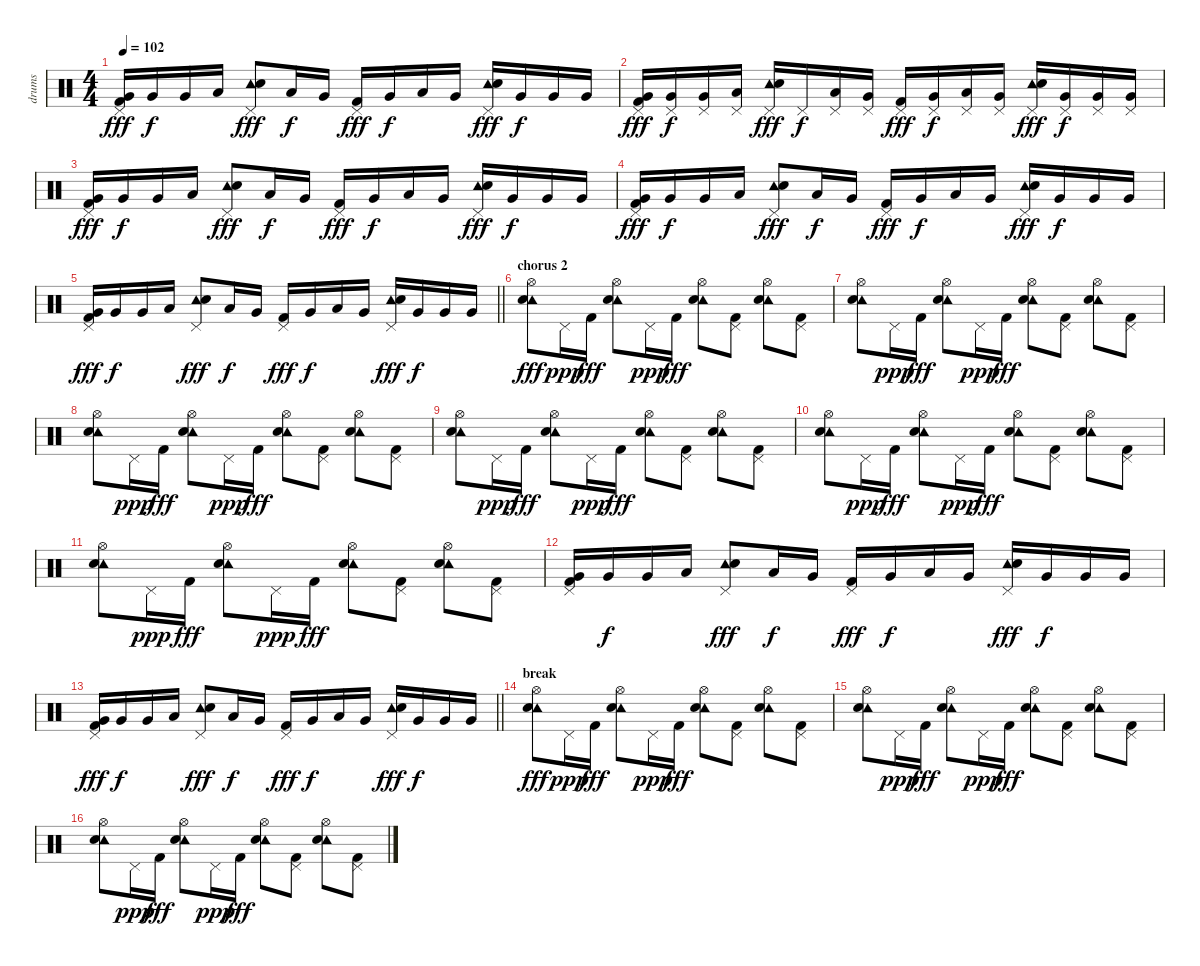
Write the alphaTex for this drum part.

\track ("drums" "drums") {instrument percussion}
\staff {score}
\articulation defaults
\ts (4 4)
\tempo 102
\clef neutral
\ks c
("Pedal Hi-Hat (hit)" "Very Low Tom (hit)" "Kick (hit) 2").16{dy fff} "Very Low Tom (hit)".16{dy f} "Very Low Tom (hit)".16 "Low Tom (hit)".16 ("Tambourine (hit)" "Pedal Hi-Hat (hit)" "Electric Snare (hit)").8{dy fff} "Low Tom (hit)".16{dy f} "Very Low Tom (hit)".16 ("Pedal Hi-Hat (hit)" "Kick (hit) 2").16{dy fff} "Very Low Tom (hit)".16{dy f} "Low Tom (hit)".16 "Very Low Tom (hit)".16 ("Tambourine (hit)" "Pedal Hi-Hat (hit)" "Electric Snare (hit)").16{dy fff} "Very Low Tom (hit)".16{dy f} "Very Low Tom (hit)".16 "Very Low Tom (hit)".16 |
("Pedal Hi-Hat (hit)" "Very Low Tom (hit)" "Kick (hit) 2").16{dy fff} ("Pedal Hi-Hat (hit)" "Very Low Tom (hit)").16{dy f} ("Pedal Hi-Hat (hit)" "Very Low Tom (hit)").16 ("Pedal Hi-Hat (hit)" "Low Tom (hit)").16 ("Tambourine (hit)" "Pedal Hi-Hat (hit)" "Electric Snare (hit)").16{dy fff} "Pedal Hi-Hat (hit)".16{dy f} ("Pedal Hi-Hat (hit)" "Low Tom (hit)").16 ("Pedal Hi-Hat (hit)" "Very Low Tom (hit)").16 ("Pedal Hi-Hat (hit)" "Kick (hit) 2").16{dy fff} ("Pedal Hi-Hat (hit)" "Very Low Tom (hit)").16{dy f} ("Pedal Hi-Hat (hit)" "Low Tom (hit)").16 ("Pedal Hi-Hat (hit)" "Very Low Tom (hit)").16 ("Tambourine (hit)" "Pedal Hi-Hat (hit)" "Electric Snare (hit)").16{dy fff} ("Pedal Hi-Hat (hit)" "Very Low Tom (hit)").16{dy f} ("Pedal Hi-Hat (hit)" "Very Low Tom (hit)").16 ("Pedal Hi-Hat (hit)" "Very Low Tom (hit)").16 |
("Pedal Hi-Hat (hit)" "Very Low Tom (hit)" "Kick (hit) 2").16{dy fff} "Very Low Tom (hit)".16{dy f} "Very Low Tom (hit)".16 "Low Tom (hit)".16 ("Tambourine (hit)" "Pedal Hi-Hat (hit)" "Electric Snare (hit)").8{dy fff} "Low Tom (hit)".16{dy f} "Very Low Tom (hit)".16 ("Pedal Hi-Hat (hit)" "Kick (hit) 2").16{dy fff} "Very Low Tom (hit)".16{dy f} "Low Tom (hit)".16 "Very Low Tom (hit)".16 ("Tambourine (hit)" "Pedal Hi-Hat (hit)" "Electric Snare (hit)").16{dy fff} "Very Low Tom (hit)".16{dy f} "Very Low Tom (hit)".16 "Very Low Tom (hit)".16 |
("Pedal Hi-Hat (hit)" "Very Low Tom (hit)" "Kick (hit) 2").16{dy fff} "Very Low Tom (hit)".16{dy f} "Very Low Tom (hit)".16 "Low Tom (hit)".16 ("Tambourine (hit)" "Pedal Hi-Hat (hit)" "Electric Snare (hit)").8{dy fff} "Low Tom (hit)".16{dy f} "Very Low Tom (hit)".16 ("Pedal Hi-Hat (hit)" "Kick (hit) 2").16{dy fff} "Very Low Tom (hit)".16{dy f} "Low Tom (hit)".16 "Very Low Tom (hit)".16 ("Tambourine (hit)" "Pedal Hi-Hat (hit)" "Electric Snare (hit)").16{dy fff} "Very Low Tom (hit)".16{dy f} "Very Low Tom (hit)".16 "Very Low Tom (hit)".16 |
\barLineRight lightlight
("Pedal Hi-Hat (hit)" "Very Low Tom (hit)" "Kick (hit) 2").16{dy fff} "Very Low Tom (hit)".16{dy f} "Very Low Tom (hit)".16 "Low Tom (hit)".16 ("Tambourine (hit)" "Pedal Hi-Hat (hit)" "Electric Snare (hit)").8{dy fff} "Low Tom (hit)".16{dy f} "Very Low Tom (hit)".16 ("Pedal Hi-Hat (hit)" "Kick (hit) 2").16{dy fff} "Very Low Tom (hit)".16{dy f} "Low Tom (hit)".16 "Very Low Tom (hit)".16 ("Tambourine (hit)" "Pedal Hi-Hat (hit)" "Electric Snare (hit)").16{dy fff} "Very Low Tom (hit)".16{dy f} "Very Low Tom (hit)".16 "Very Low Tom (hit)".16 |
\section ("" "chorus 2")
("Tambourine (hit)" "Hi-Hat (open)" "Electric Snare (hit)").8{dy fff} "Pedal Hi-Hat (hit)".16{dy ppp} "Kick (hit) 2".16{dy fff} ("Tambourine (hit)" "Hi-Hat (open)" "Electric Snare (hit)").8 "Pedal Hi-Hat (hit)".16{dy ppp} "Kick (hit) 2".16{dy fff} ("Tambourine (hit)" "Hi-Hat (open)" "Electric Snare (hit)").8 ("Pedal Hi-Hat (hit)" "Kick (hit) 2").8 ("Tambourine (hit)" "Hi-Hat (open)" "Electric Snare (hit)").8 ("Pedal Hi-Hat (hit)" "Kick (hit) 2").8 |
("Tambourine (hit)" "Hi-Hat (open)" "Electric Snare (hit)").8 "Pedal Hi-Hat (hit)".16{dy ppp} "Kick (hit) 2".16{dy fff} ("Tambourine (hit)" "Hi-Hat (open)" "Electric Snare (hit)").8 "Pedal Hi-Hat (hit)".16{dy ppp} "Kick (hit) 2".16{dy fff} ("Tambourine (hit)" "Hi-Hat (open)" "Electric Snare (hit)").8 ("Pedal Hi-Hat (hit)" "Kick (hit) 2").8 ("Tambourine (hit)" "Hi-Hat (open)" "Electric Snare (hit)").8 ("Pedal Hi-Hat (hit)" "Kick (hit) 2").8 |
("Tambourine (hit)" "Hi-Hat (open)" "Electric Snare (hit)").8 "Pedal Hi-Hat (hit)".16{dy ppp} "Kick (hit) 2".16{dy fff} ("Tambourine (hit)" "Hi-Hat (open)" "Electric Snare (hit)").8 "Pedal Hi-Hat (hit)".16{dy ppp} "Kick (hit) 2".16{dy fff} ("Tambourine (hit)" "Hi-Hat (open)" "Electric Snare (hit)").8 ("Pedal Hi-Hat (hit)" "Kick (hit) 2").8 ("Tambourine (hit)" "Hi-Hat (open)" "Electric Snare (hit)").8 ("Pedal Hi-Hat (hit)" "Kick (hit) 2").8 |
("Tambourine (hit)" "Hi-Hat (open)" "Electric Snare (hit)").8 "Pedal Hi-Hat (hit)".16{dy ppp} "Kick (hit) 2".16{dy fff} ("Tambourine (hit)" "Hi-Hat (open)" "Electric Snare (hit)").8 "Pedal Hi-Hat (hit)".16{dy ppp} "Kick (hit) 2".16{dy fff} ("Tambourine (hit)" "Hi-Hat (open)" "Electric Snare (hit)").8 ("Pedal Hi-Hat (hit)" "Kick (hit) 2").8 ("Tambourine (hit)" "Hi-Hat (open)" "Electric Snare (hit)").8 ("Pedal Hi-Hat (hit)" "Kick (hit) 2").8 |
("Tambourine (hit)" "Hi-Hat (open)" "Electric Snare (hit)").8 "Pedal Hi-Hat (hit)".16{dy ppp} "Kick (hit) 2".16{dy fff} ("Tambourine (hit)" "Hi-Hat (open)" "Electric Snare (hit)").8 "Pedal Hi-Hat (hit)".16{dy ppp} "Kick (hit) 2".16{dy fff} ("Tambourine (hit)" "Hi-Hat (open)" "Electric Snare (hit)").8 ("Pedal Hi-Hat (hit)" "Kick (hit) 2").8 ("Tambourine (hit)" "Hi-Hat (open)" "Electric Snare (hit)").8 ("Pedal Hi-Hat (hit)" "Kick (hit) 2").8 |
("Tambourine (hit)" "Hi-Hat (open)" "Electric Snare (hit)").8 "Pedal Hi-Hat (hit)".16{dy ppp} "Kick (hit) 2".16{dy fff} ("Tambourine (hit)" "Hi-Hat (open)" "Electric Snare (hit)").8 "Pedal Hi-Hat (hit)".16{dy ppp} "Kick (hit) 2".16{dy fff} ("Tambourine (hit)" "Hi-Hat (open)" "Electric Snare (hit)").8 ("Pedal Hi-Hat (hit)" "Kick (hit) 2").8 ("Tambourine (hit)" "Hi-Hat (open)" "Electric Snare (hit)").8 ("Pedal Hi-Hat (hit)" "Kick (hit) 2").8 |
("Pedal Hi-Hat (hit)" "Very Low Tom (hit)" "Kick (hit) 2").16 "Very Low Tom (hit)".16{dy f} "Very Low Tom (hit)".16 "Low Tom (hit)".16 ("Tambourine (hit)" "Pedal Hi-Hat (hit)" "Electric Snare (hit)").8{dy fff} "Low Tom (hit)".16{dy f} "Very Low Tom (hit)".16 ("Pedal Hi-Hat (hit)" "Kick (hit) 2").16{dy fff} "Very Low Tom (hit)".16{dy f} "Low Tom (hit)".16 "Very Low Tom (hit)".16 ("Tambourine (hit)" "Pedal Hi-Hat (hit)" "Electric Snare (hit)").16{dy fff} "Very Low Tom (hit)".16{dy f} "Very Low Tom (hit)".16 "Very Low Tom (hit)".16 |
\barLineRight lightlight
("Pedal Hi-Hat (hit)" "Very Low Tom (hit)" "Kick (hit) 2").16{dy fff} "Very Low Tom (hit)".16{dy f} "Very Low Tom (hit)".16 "Low Tom (hit)".16 ("Tambourine (hit)" "Pedal Hi-Hat (hit)" "Electric Snare (hit)").8{dy fff} "Low Tom (hit)".16{dy f} "Very Low Tom (hit)".16 ("Pedal Hi-Hat (hit)" "Kick (hit) 2").16{dy fff} "Very Low Tom (hit)".16{dy f} "Low Tom (hit)".16 "Very Low Tom (hit)".16 ("Tambourine (hit)" "Pedal Hi-Hat (hit)" "Electric Snare (hit)").16{dy fff} "Very Low Tom (hit)".16{dy f} "Very Low Tom (hit)".16 "Very Low Tom (hit)".16 |
\section ("" "break")
("Tambourine (hit)" "Hi-Hat (open)" "Electric Snare (hit)").8{dy fff} "Pedal Hi-Hat (hit)".16{dy ppp} "Kick (hit) 2".16{dy fff} ("Tambourine (hit)" "Hi-Hat (open)" "Electric Snare (hit)").8 "Pedal Hi-Hat (hit)".16{dy ppp} "Kick (hit) 2".16{dy fff} ("Tambourine (hit)" "Hi-Hat (open)" "Electric Snare (hit)").8 ("Pedal Hi-Hat (hit)" "Kick (hit) 2").8 ("Tambourine (hit)" "Hi-Hat (open)" "Electric Snare (hit)").8 ("Pedal Hi-Hat (hit)" "Kick (hit) 2").8 |
("Tambourine (hit)" "Hi-Hat (open)" "Electric Snare (hit)").8 "Pedal Hi-Hat (hit)".16{dy ppp} "Kick (hit) 2".16{dy fff} ("Tambourine (hit)" "Hi-Hat (open)" "Electric Snare (hit)").8 "Pedal Hi-Hat (hit)".16{dy ppp} "Kick (hit) 2".16{dy fff} ("Tambourine (hit)" "Hi-Hat (open)" "Electric Snare (hit)").8 ("Pedal Hi-Hat (hit)" "Kick (hit) 2").8 ("Tambourine (hit)" "Hi-Hat (open)" "Electric Snare (hit)").8 ("Pedal Hi-Hat (hit)" "Kick (hit) 2").8 |
("Tambourine (hit)" "Hi-Hat (open)" "Electric Snare (hit)").8 "Pedal Hi-Hat (hit)".16{dy ppp} "Kick (hit) 2".16{dy fff} ("Tambourine (hit)" "Hi-Hat (open)" "Electric Snare (hit)").8 "Pedal Hi-Hat (hit)".16{dy ppp} "Kick (hit) 2".16{dy fff} ("Tambourine (hit)" "Hi-Hat (open)" "Electric Snare (hit)").8 ("Pedal Hi-Hat (hit)" "Kick (hit) 2").8 ("Tambourine (hit)" "Hi-Hat (open)" "Electric Snare (hit)").8 ("Pedal Hi-Hat (hit)" "Kick (hit) 2").8
